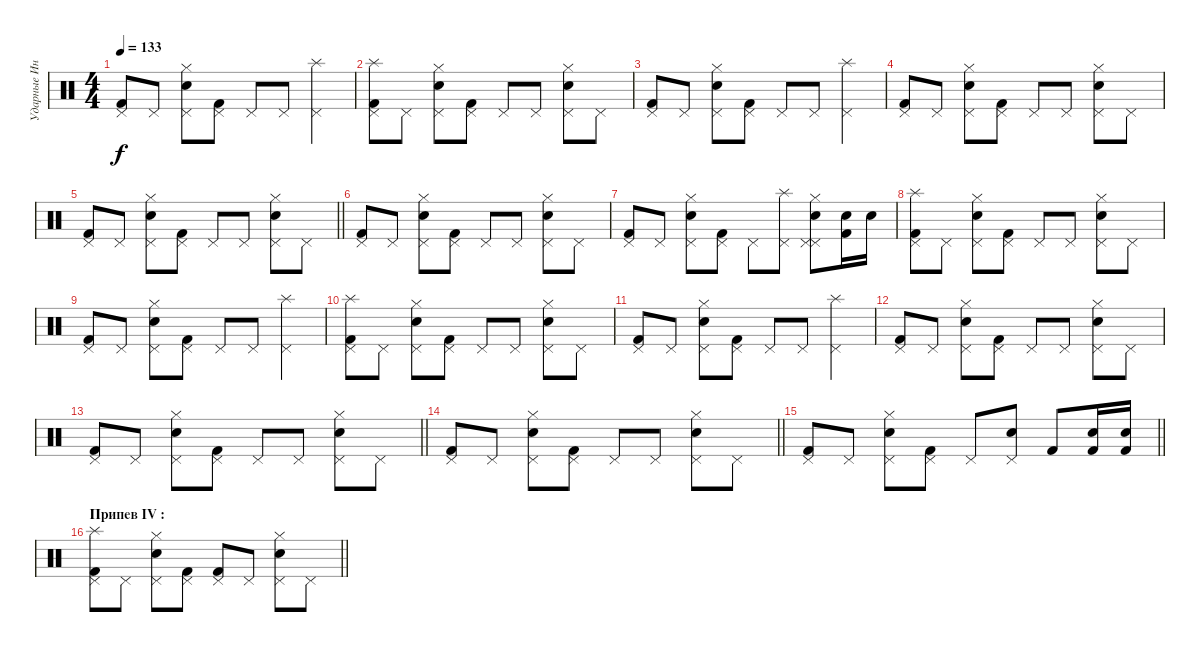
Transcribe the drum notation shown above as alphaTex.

\track ("Ударные Инструменты" "Ударные Ин") {instrument percussion}
\staff {score}
\articulation defaults
\ts (4 4)
\tempo 133
\clef neutral
\ks c
("Pedal Hi-Hat (hit)" "Kick (hit) 2").8{dy f} "Pedal Hi-Hat (hit)".8 ("Electric Snare (hit)" "Pedal Hi-Hat (hit)" "Hi-Hat (closed)").8 ("Pedal Hi-Hat (hit)" "Kick (hit) 2").8 "Pedal Hi-Hat (hit)".8 "Pedal Hi-Hat (hit)".8 ("Splash (hit)" "Pedal Hi-Hat (hit)").4 |
("Splash (hit)" "Pedal Hi-Hat (hit)" "Kick (hit) 2").8 "Pedal Hi-Hat (hit)".8 ("Electric Snare (hit)" "Pedal Hi-Hat (hit)" "Hi-Hat (closed)").8 ("Pedal Hi-Hat (hit)" "Kick (hit) 2").8 "Pedal Hi-Hat (hit)".8 "Pedal Hi-Hat (hit)".8 ("Electric Snare (hit)" "Pedal Hi-Hat (hit)" "Hi-Hat (closed)").8 "Pedal Hi-Hat (hit)".8 |
("Pedal Hi-Hat (hit)" "Kick (hit) 2").8 "Pedal Hi-Hat (hit)".8 ("Electric Snare (hit)" "Pedal Hi-Hat (hit)" "Hi-Hat (closed)").8 ("Pedal Hi-Hat (hit)" "Kick (hit) 2").8 "Pedal Hi-Hat (hit)".8 "Pedal Hi-Hat (hit)".8 ("Splash (hit)" "Pedal Hi-Hat (hit)").4 |
("Pedal Hi-Hat (hit)" "Kick (hit) 2").8 "Pedal Hi-Hat (hit)".8 ("Electric Snare (hit)" "Pedal Hi-Hat (hit)" "Hi-Hat (closed)").8 ("Pedal Hi-Hat (hit)" "Kick (hit) 2").8 "Pedal Hi-Hat (hit)".8 "Pedal Hi-Hat (hit)".8 ("Electric Snare (hit)" "Pedal Hi-Hat (hit)" "Hi-Hat (closed)").8 "Pedal Hi-Hat (hit)".8 |
\barLineRight lightlight
("Pedal Hi-Hat (hit)" "Kick (hit) 2").8 "Pedal Hi-Hat (hit)".8 ("Electric Snare (hit)" "Pedal Hi-Hat (hit)" "Hi-Hat (closed)").8 ("Pedal Hi-Hat (hit)" "Kick (hit) 2").8 "Pedal Hi-Hat (hit)".8 "Pedal Hi-Hat (hit)".8 ("Electric Snare (hit)" "Pedal Hi-Hat (hit)" "Hi-Hat (closed)").8 "Pedal Hi-Hat (hit)".8 |
("Pedal Hi-Hat (hit)" "Kick (hit) 2").8 "Pedal Hi-Hat (hit)".8 ("Electric Snare (hit)" "Pedal Hi-Hat (hit)" "Hi-Hat (closed)").8 ("Pedal Hi-Hat (hit)" "Kick (hit) 2").8 "Pedal Hi-Hat (hit)".8 "Pedal Hi-Hat (hit)".8 ("Electric Snare (hit)" "Pedal Hi-Hat (hit)" "Hi-Hat (closed)").8 "Pedal Hi-Hat (hit)".8 |
("Pedal Hi-Hat (hit)" "Kick (hit) 2").8 "Pedal Hi-Hat (hit)".8 ("Electric Snare (hit)" "Pedal Hi-Hat (hit)" "Hi-Hat (closed)").8 ("Pedal Hi-Hat (hit)" "Kick (hit) 2").8 "Pedal Hi-Hat (hit)".8 ("Splash (hit)" "Pedal Hi-Hat (hit)").8 ("Electric Snare (hit)" "Pedal Hi-Hat (hit)" "Hi-Hat (closed)" "Pedal Hi-Hat (hit)").8 ("Snare (hit) 2" "Kick (hit) 2").16 "Snare (hit) 2".16 |
("Splash (hit)" "Pedal Hi-Hat (hit)" "Kick (hit) 2").8 "Pedal Hi-Hat (hit)".8 ("Electric Snare (hit)" "Pedal Hi-Hat (hit)" "Hi-Hat (closed)").8 ("Pedal Hi-Hat (hit)" "Kick (hit) 2").8 "Pedal Hi-Hat (hit)".8 "Pedal Hi-Hat (hit)".8 ("Electric Snare (hit)" "Pedal Hi-Hat (hit)" "Hi-Hat (closed)").8 "Pedal Hi-Hat (hit)".8 |
("Pedal Hi-Hat (hit)" "Kick (hit) 2").8 "Pedal Hi-Hat (hit)".8 ("Electric Snare (hit)" "Pedal Hi-Hat (hit)" "Hi-Hat (closed)").8 ("Pedal Hi-Hat (hit)" "Kick (hit) 2").8 "Pedal Hi-Hat (hit)".8 "Pedal Hi-Hat (hit)".8 ("Splash (hit)" "Pedal Hi-Hat (hit)").4 |
("Splash (hit)" "Pedal Hi-Hat (hit)" "Kick (hit) 2").8 "Pedal Hi-Hat (hit)".8 ("Electric Snare (hit)" "Pedal Hi-Hat (hit)" "Hi-Hat (closed)").8 ("Pedal Hi-Hat (hit)" "Kick (hit) 2").8 "Pedal Hi-Hat (hit)".8 "Pedal Hi-Hat (hit)".8 ("Electric Snare (hit)" "Pedal Hi-Hat (hit)" "Hi-Hat (closed)").8 "Pedal Hi-Hat (hit)".8 |
("Pedal Hi-Hat (hit)" "Kick (hit) 2").8 "Pedal Hi-Hat (hit)".8 ("Electric Snare (hit)" "Pedal Hi-Hat (hit)" "Hi-Hat (closed)").8 ("Pedal Hi-Hat (hit)" "Kick (hit) 2").8 "Pedal Hi-Hat (hit)".8 "Pedal Hi-Hat (hit)".8 ("Splash (hit)" "Pedal Hi-Hat (hit)").4 |
("Pedal Hi-Hat (hit)" "Kick (hit) 2").8 "Pedal Hi-Hat (hit)".8 ("Electric Snare (hit)" "Pedal Hi-Hat (hit)" "Hi-Hat (closed)").8 ("Pedal Hi-Hat (hit)" "Kick (hit) 2").8 "Pedal Hi-Hat (hit)".8 "Pedal Hi-Hat (hit)".8 ("Electric Snare (hit)" "Pedal Hi-Hat (hit)" "Hi-Hat (closed)").8 "Pedal Hi-Hat (hit)".8 |
\barLineRight lightlight
("Pedal Hi-Hat (hit)" "Kick (hit) 2").8 "Pedal Hi-Hat (hit)".8 ("Electric Snare (hit)" "Pedal Hi-Hat (hit)" "Hi-Hat (closed)").8 ("Pedal Hi-Hat (hit)" "Kick (hit) 2").8 "Pedal Hi-Hat (hit)".8 "Pedal Hi-Hat (hit)".8 ("Electric Snare (hit)" "Pedal Hi-Hat (hit)" "Hi-Hat (closed)").8 "Pedal Hi-Hat (hit)".8 |
\barLineRight lightlight
("Pedal Hi-Hat (hit)" "Kick (hit) 2").8 "Pedal Hi-Hat (hit)".8 ("Electric Snare (hit)" "Pedal Hi-Hat (hit)" "Hi-Hat (closed)").8 ("Pedal Hi-Hat (hit)" "Kick (hit) 2").8 "Pedal Hi-Hat (hit)".8 "Pedal Hi-Hat (hit)".8 ("Electric Snare (hit)" "Pedal Hi-Hat (hit)" "Hi-Hat (closed)").8 "Pedal Hi-Hat (hit)".8 |
\barLineRight lightlight
("Pedal Hi-Hat (hit)" "Kick (hit) 2").8 "Pedal Hi-Hat (hit)".8 ("Electric Snare (hit)" "Pedal Hi-Hat (hit)" "Hi-Hat (closed)").8 ("Pedal Hi-Hat (hit)" "Kick (hit) 2").8 "Pedal Hi-Hat (hit)".8 ("Electric Snare (hit)" "Pedal Hi-Hat (hit)").8 "Kick (hit) 2".8 ("Snare (hit) 2" "Kick (hit) 2").16 ("Snare (hit) 2" "Kick (hit) 2").16 |
\section ("" "Припев IV :")
\barLineRight lightlight
("Splash (hit)" "Pedal Hi-Hat (hit)" "Kick (hit) 2").8 "Pedal Hi-Hat (hit)".8 ("Electric Snare (hit)" "Pedal Hi-Hat (hit)" "Hi-Hat (closed)").8 ("Pedal Hi-Hat (hit)" "Kick (hit) 2").8 ("Pedal Hi-Hat (hit)" "Kick (hit) 2").8 "Pedal Hi-Hat (hit)".8 ("Electric Snare (hit)" "Pedal Hi-Hat (hit)" "Hi-Hat (closed)").8 "Pedal Hi-Hat (hit)".8
